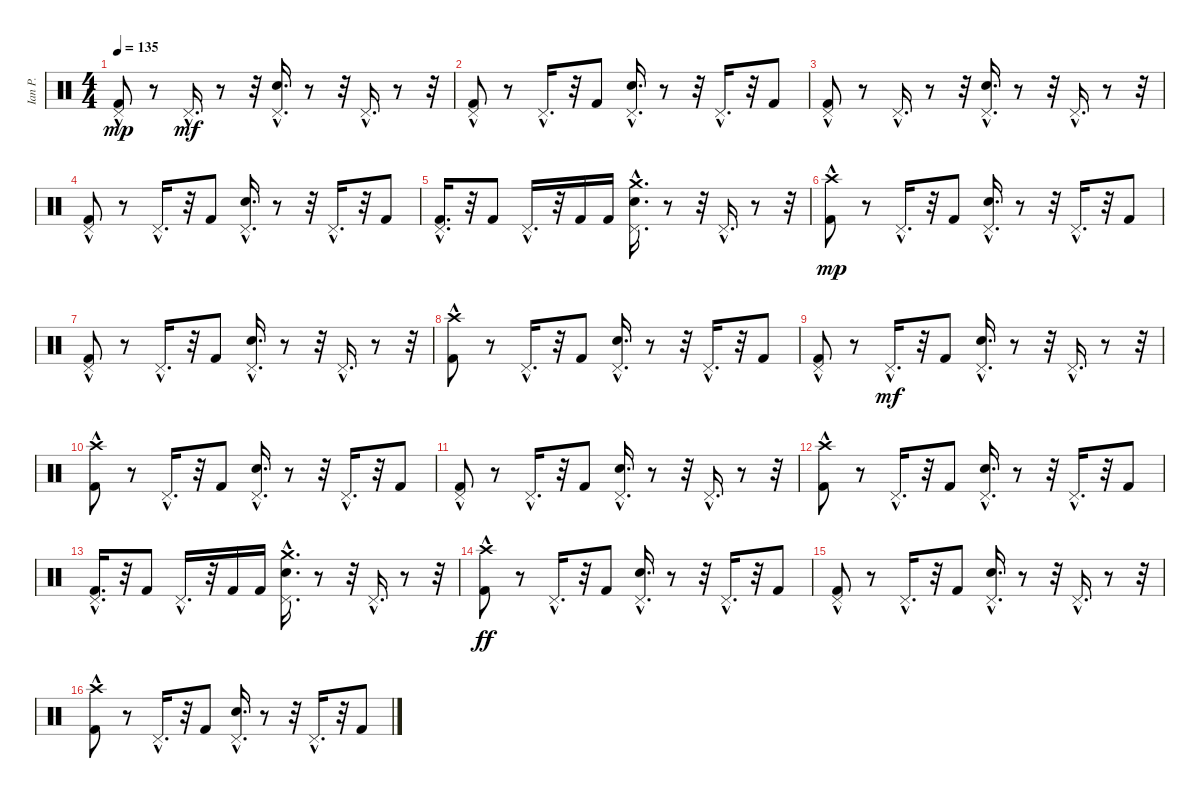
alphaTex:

\track ("Ian P." "Ian P.") {instrument percussion}
\staff {score}
\articulation defaults
\ts (4 4)
\tempo 135
\clef neutral
\ks c
("Kick (hit) 2" "Pedal Hi-Hat (hit)"{hac}).8{dy mp} r.8 "Pedal Hi-Hat (hit)"{hac}.16{d dy mf} r.8 r.32 ("Snare (hit) 2"{hac} "Pedal Hi-Hat (hit)"{hac}).16{d} r.8 r.32 "Pedal Hi-Hat (hit)"{hac}.16{d} r.8 r.32 |
("Kick (hit) 2" "Pedal Hi-Hat (hit)"{hac}).8 r.8 "Pedal Hi-Hat (hit)"{hac}.16{d} r.32 "Kick (hit) 2".8 ("Snare (hit) 2"{hac} "Pedal Hi-Hat (hit)"{hac}).16{d} r.8 r.32 "Pedal Hi-Hat (hit)"{hac}.16{d} r.32 "Kick (hit) 2".8 |
("Kick (hit) 2" "Pedal Hi-Hat (hit)"{hac}).8 r.8 "Pedal Hi-Hat (hit)"{hac}.16{d} r.8 r.32 ("Snare (hit) 2"{hac} "Pedal Hi-Hat (hit)"{hac}).16{d} r.8 r.32 "Pedal Hi-Hat (hit)"{hac}.16{d} r.8 r.32 |
("Kick (hit) 2" "Pedal Hi-Hat (hit)"{hac}).8 r.8 "Pedal Hi-Hat (hit)"{hac}.16{d} r.32 "Kick (hit) 2".8 ("Snare (hit) 2"{hac} "Pedal Hi-Hat (hit)"{hac}).16{d} r.8 r.32 "Pedal Hi-Hat (hit)"{hac}.16{d} r.32 "Kick (hit) 2".8 |
("Kick (hit) 2" "Pedal Hi-Hat (hit)"{hac}).16{d} r.32 "Kick (hit) 2".8 "Pedal Hi-Hat (hit)"{hac}.16{d} r.32 "Kick (hit) 2".16 "Kick (hit) 2".16 ("Snare (hit) 2"{hac} "Crash medium (hit)" "Pedal Hi-Hat (hit)"{hac}).16{d} r.8 r.32 "Pedal Hi-Hat (hit)"{hac}.16{d} r.8 r.32 |
("Kick (hit) 2" "Crash high (hit)"{hac}).8{dy mp} r.8 "Pedal Hi-Hat (hit)"{hac}.16{d} r.32 "Kick (hit) 2".8 ("Snare (hit) 2"{hac} "Pedal Hi-Hat (hit)"{hac}).16{d} r.8 r.32 "Pedal Hi-Hat (hit)"{hac}.16{d} r.32 "Kick (hit) 2".8 |
("Kick (hit) 2" "Pedal Hi-Hat (hit)"{hac}).8 r.8 "Pedal Hi-Hat (hit)"{hac}.16{d} r.32 "Kick (hit) 2".8 ("Snare (hit) 2"{hac} "Pedal Hi-Hat (hit)"{hac}).16{d} r.8 r.32 "Pedal Hi-Hat (hit)"{hac}.16{d} r.8 r.32 |
("Kick (hit) 2" "Crash high (hit)"{hac}).8 r.8 "Pedal Hi-Hat (hit)"{hac}.16{d} r.32 "Kick (hit) 2".8 ("Snare (hit) 2"{hac} "Pedal Hi-Hat (hit)"{hac}).16{d} r.8 r.32 "Pedal Hi-Hat (hit)"{hac}.16{d} r.32 "Kick (hit) 2".8 |
("Kick (hit) 2" "Pedal Hi-Hat (hit)"{hac}).8 r.8 "Pedal Hi-Hat (hit)"{hac}.16{d dy mf} r.32 "Kick (hit) 2".8 ("Snare (hit) 2"{hac} "Pedal Hi-Hat (hit)"{hac}).16{d} r.8 r.32 "Pedal Hi-Hat (hit)"{hac}.16{d} r.8 r.32 |
("Kick (hit) 2" "Crash high (hit)"{hac}).8 r.8 "Pedal Hi-Hat (hit)"{hac}.16{d} r.32 "Kick (hit) 2".8 ("Snare (hit) 2"{hac} "Pedal Hi-Hat (hit)"{hac}).16{d} r.8 r.32 "Pedal Hi-Hat (hit)"{hac}.16{d} r.32 "Kick (hit) 2".8 |
("Kick (hit) 2" "Pedal Hi-Hat (hit)"{hac}).8 r.8 "Pedal Hi-Hat (hit)"{hac}.16{d} r.32 "Kick (hit) 2".8 ("Snare (hit) 2"{hac} "Pedal Hi-Hat (hit)"{hac}).16{d} r.8 r.32 "Pedal Hi-Hat (hit)"{hac}.16{d} r.8 r.32 |
("Kick (hit) 2" "Crash high (hit)"{hac}).8 r.8 "Pedal Hi-Hat (hit)"{hac}.16{d} r.32 "Kick (hit) 2".8 ("Snare (hit) 2"{hac} "Pedal Hi-Hat (hit)"{hac}).16{d} r.8 r.32 "Pedal Hi-Hat (hit)"{hac}.16{d} r.32 "Kick (hit) 2".8 |
("Kick (hit) 2" "Pedal Hi-Hat (hit)"{hac}).16{d} r.32 "Kick (hit) 2".8 "Pedal Hi-Hat (hit)"{hac}.16{d} r.32 "Kick (hit) 2".16 "Kick (hit) 2".16 ("Snare (hit) 2"{hac} "Crash medium (hit)" "Pedal Hi-Hat (hit)"{hac}).16{d} r.8 r.32 "Pedal Hi-Hat (hit)"{hac}.16{d} r.8 r.32 |
("Kick (hit) 2" "Crash high (hit)"{hac}).8{dy ff} r.8 "Pedal Hi-Hat (hit)"{hac}.16{d} r.32 "Kick (hit) 2".8 ("Snare (hit) 2"{hac} "Pedal Hi-Hat (hit)"{hac}).16{d} r.8 r.32 "Pedal Hi-Hat (hit)"{hac}.16{d} r.32 "Kick (hit) 2".8 |
("Kick (hit) 2" "Pedal Hi-Hat (hit)"{hac}).8 r.8 "Pedal Hi-Hat (hit)"{hac}.16{d} r.32 "Kick (hit) 2".8 ("Snare (hit) 2"{hac} "Pedal Hi-Hat (hit)"{hac}).16{d} r.8 r.32 "Pedal Hi-Hat (hit)"{hac}.16{d} r.8 r.32 |
("Kick (hit) 2" "Crash high (hit)"{hac}).8 r.8 "Pedal Hi-Hat (hit)"{hac}.16{d} r.32 "Kick (hit) 2".8 ("Snare (hit) 2"{hac} "Pedal Hi-Hat (hit)"{hac}).16{d} r.8 r.32 "Pedal Hi-Hat (hit)"{hac}.16{d} r.32 "Kick (hit) 2".8
